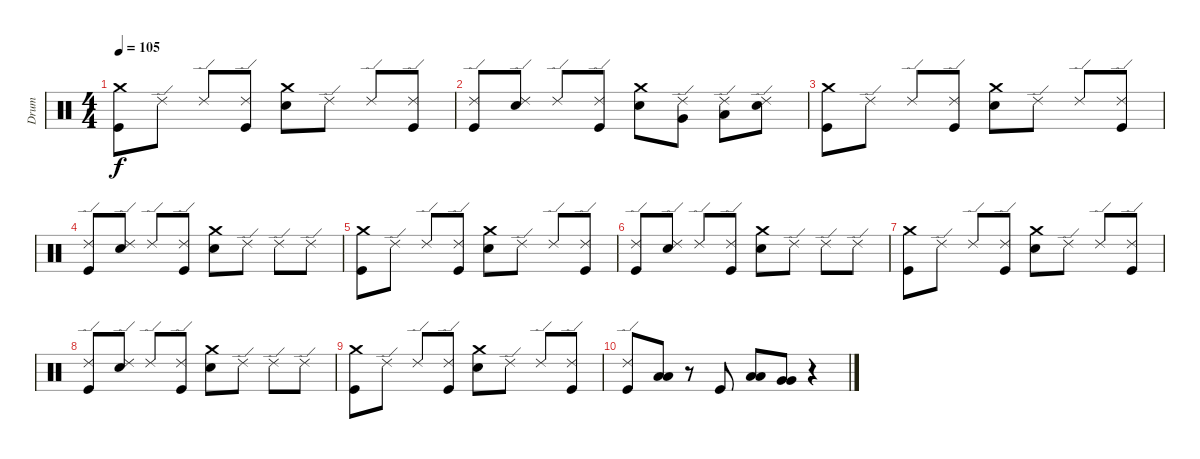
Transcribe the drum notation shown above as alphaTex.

\track ("Drum" "Drum") {instrument percussion}
\staff {score}
\articulation defaults
\ts (4 4)
\tempo 105
\clef neutral
\ks c
("Crash medium (hit)" "Kick (hit)").8{dy f} "Ride (edge) 2".8 "Ride (edge) 2".8 ("Ride (edge) 2" "Kick (hit)").8 ("Crash medium (hit)" "Electric Snare (hit)").8 "Ride (edge) 2".8 "Ride (edge) 2".8 ("Ride (edge) 2" "Kick (hit)").8 |
("Ride (edge) 2" "Kick (hit)").8 ("Ride (edge) 2" "Electric Snare (hit)").8 "Ride (edge) 2".8 ("Ride (edge) 2" "Kick (hit)").8 ("Crash medium (hit)" "Electric Snare (hit)").8 ("Ride (edge) 2" "Very Low Tom (hit)").8 ("Ride (edge) 2" "Low Floor Tom (hit)").8 ("Ride (edge) 2" "Electric Snare (hit)").8 |
("Crash medium (hit)" "Kick (hit)").8 "Ride (edge) 2".8 "Ride (edge) 2".8 ("Ride (edge) 2" "Kick (hit)").8 ("Crash medium (hit)" "Electric Snare (hit)").8 "Ride (edge) 2".8 "Ride (edge) 2".8 ("Ride (edge) 2" "Kick (hit)").8 |
("Ride (edge) 2" "Kick (hit)").8 ("Ride (edge) 2" "Electric Snare (hit)").8 "Ride (edge) 2".8 ("Ride (edge) 2" "Kick (hit)").8 ("Crash medium (hit)" "Electric Snare (hit)").8 "Ride (edge) 2".8 "Ride (edge) 2".8 "Ride (edge) 2".8 |
("Crash medium (hit)" "Kick (hit)").8 "Ride (edge) 2".8 "Ride (edge) 2".8 ("Ride (edge) 2" "Kick (hit)").8 ("Crash medium (hit)" "Electric Snare (hit)").8 "Ride (edge) 2".8 "Ride (edge) 2".8 ("Ride (edge) 2" "Kick (hit)").8 |
("Ride (edge) 2" "Kick (hit)").8 ("Ride (edge) 2" "Electric Snare (hit)").8 "Ride (edge) 2".8 ("Ride (edge) 2" "Kick (hit)").8 ("Crash medium (hit)" "Electric Snare (hit)").8 "Ride (edge) 2".8 "Ride (edge) 2".8 "Ride (edge) 2".8 |
("Crash medium (hit)" "Kick (hit)").8 "Ride (edge) 2".8 "Ride (edge) 2".8 ("Ride (edge) 2" "Kick (hit)").8 ("Crash medium (hit)" "Electric Snare (hit)").8 "Ride (edge) 2".8 "Ride (edge) 2".8 ("Ride (edge) 2" "Kick (hit)").8 |
("Ride (edge) 2" "Kick (hit)").8 ("Ride (edge) 2" "Electric Snare (hit)").8 "Ride (edge) 2".8 ("Ride (edge) 2" "Kick (hit)").8 ("Crash medium (hit)" "Electric Snare (hit)").8 "Ride (edge) 2".8 "Ride (edge) 2".8 "Ride (edge) 2".8 |
("Crash medium (hit)" "Kick (hit)").8 "Ride (edge) 2".8 "Ride (edge) 2".8 ("Ride (edge) 2" "Kick (hit)").8 ("Crash medium (hit)" "Electric Snare (hit)").8 "Ride (edge) 2".8 "Ride (edge) 2".8 ("Ride (edge) 2" "Kick (hit)").8 |
("Ride (edge) 2" "Kick (hit)").8 ("Low Tom (hit)" "Low Tom (hit)").8 r.8 "Kick (hit)".8 ("Low Tom (hit)" "Low Tom (hit)").8 ("Very Low Tom (hit)" "Very Low Tom (hit)").8 r.4
